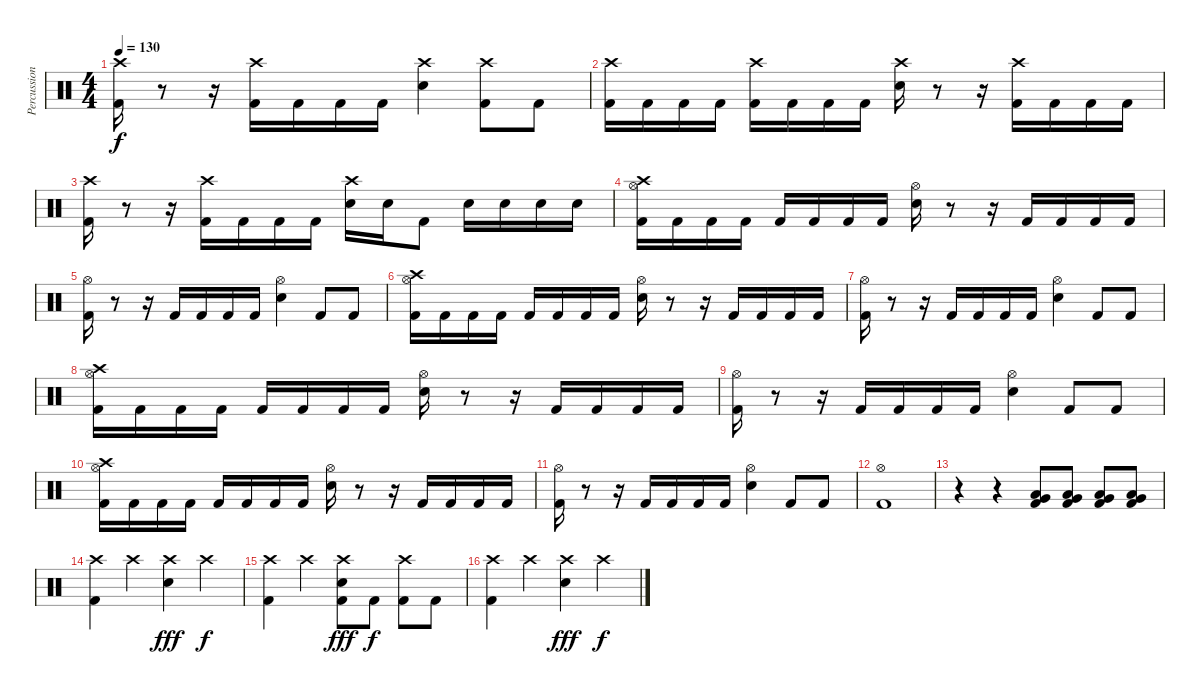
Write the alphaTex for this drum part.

\track ("Percussion" "Percussion") {instrument percussion}
\staff {score}
\articulation defaults
\ts (4 4)
\tempo 130
\clef neutral
\ks c
("Crash high (hit)" "Kick (hit) 2").16{dy f} r.8 r.16 ("Crash high (hit)" "Kick (hit) 2").16 "Kick (hit) 2".16 "Kick (hit) 2".16 "Kick (hit) 2".16 ("Crash high (hit)" "Electric Snare (hit)").4 ("Crash high (hit)" "Kick (hit) 2").8 "Kick (hit) 2".8 |
("Crash high (hit)" "Kick (hit) 2").16 "Kick (hit) 2".16 "Kick (hit) 2".16 "Kick (hit) 2".16 ("Crash high (hit)" "Kick (hit) 2").16 "Kick (hit) 2".16 "Kick (hit) 2".16 "Kick (hit) 2".16 ("Crash high (hit)" "Electric Snare (hit)").16 r.8 r.16 ("Crash high (hit)" "Kick (hit) 2").16 "Kick (hit) 2".16 "Kick (hit) 2".16 "Kick (hit) 2".16 |
("Crash high (hit)" "Kick (hit) 2").16 r.8 r.16 ("Crash high (hit)" "Kick (hit) 2").16 "Kick (hit) 2".16 "Kick (hit) 2".16 "Kick (hit) 2".16 ("Crash high (hit)" "Electric Snare (hit)").16 "Electric Snare (hit)".16 "Kick (hit) 2".8 "Electric Snare (hit)".16 "Electric Snare (hit)".16 "Electric Snare (hit)".16 "Electric Snare (hit)".16 |
("Hi-Hat (open)" "Crash high (hit)" "Kick (hit) 2").16 "Kick (hit) 2".16 "Kick (hit) 2".16 "Kick (hit) 2".16 "Kick (hit) 2".16 "Kick (hit) 2".16 "Kick (hit) 2".16 "Kick (hit) 2".16 ("Hi-Hat (open)" "Electric Snare (hit)").16 r.8 r.16 "Kick (hit) 2".16 "Kick (hit) 2".16 "Kick (hit) 2".16 "Kick (hit) 2".16 |
("Hi-Hat (open)" "Kick (hit) 2").16 r.8 r.16 "Kick (hit) 2".16 "Kick (hit) 2".16 "Kick (hit) 2".16 "Kick (hit) 2".16 ("Hi-Hat (open)" "Electric Snare (hit)").4 "Kick (hit) 2".8 "Kick (hit) 2".8 |
("Hi-Hat (open)" "Crash high (hit)" "Kick (hit) 2").16 "Kick (hit) 2".16 "Kick (hit) 2".16 "Kick (hit) 2".16 "Kick (hit) 2".16 "Kick (hit) 2".16 "Kick (hit) 2".16 "Kick (hit) 2".16 ("Hi-Hat (open)" "Electric Snare (hit)").16 r.8 r.16 "Kick (hit) 2".16 "Kick (hit) 2".16 "Kick (hit) 2".16 "Kick (hit) 2".16 |
("Hi-Hat (open)" "Kick (hit) 2").16 r.8 r.16 "Kick (hit) 2".16 "Kick (hit) 2".16 "Kick (hit) 2".16 "Kick (hit) 2".16 ("Hi-Hat (open)" "Electric Snare (hit)").4 "Kick (hit) 2".8 "Kick (hit) 2".8 |
("Hi-Hat (open)" "Crash high (hit)" "Kick (hit) 2").16 "Kick (hit) 2".16 "Kick (hit) 2".16 "Kick (hit) 2".16 "Kick (hit) 2".16 "Kick (hit) 2".16 "Kick (hit) 2".16 "Kick (hit) 2".16 ("Hi-Hat (open)" "Electric Snare (hit)").16 r.8 r.16 "Kick (hit) 2".16 "Kick (hit) 2".16 "Kick (hit) 2".16 "Kick (hit) 2".16 |
("Hi-Hat (open)" "Kick (hit) 2").16 r.8 r.16 "Kick (hit) 2".16 "Kick (hit) 2".16 "Kick (hit) 2".16 "Kick (hit) 2".16 ("Hi-Hat (open)" "Electric Snare (hit)").4 "Kick (hit) 2".8 "Kick (hit) 2".8 |
("Hi-Hat (open)" "Crash high (hit)" "Kick (hit) 2").16 "Kick (hit) 2".16 "Kick (hit) 2".16 "Kick (hit) 2".16 "Kick (hit) 2".16 "Kick (hit) 2".16 "Kick (hit) 2".16 "Kick (hit) 2".16 ("Hi-Hat (open)" "Electric Snare (hit)").16 r.8 r.16 "Kick (hit) 2".16 "Kick (hit) 2".16 "Kick (hit) 2".16 "Kick (hit) 2".16 |
("Hi-Hat (open)" "Kick (hit) 2").16 r.8 r.16 "Kick (hit) 2".16 "Kick (hit) 2".16 "Kick (hit) 2".16 "Kick (hit) 2".16 ("Hi-Hat (open)" "Electric Snare (hit)").4 "Kick (hit) 2".8 "Kick (hit) 2".8 |
("Hi-Hat (open)" "Kick (hit) 2").1 |
r.4 r.4 ("Kick (hit) 2" "Low Floor Tom (hit)" "Very Low Tom (hit)").8 ("Kick (hit) 2" "Low Floor Tom (hit)" "Very Low Tom (hit)").8 ("Kick (hit) 2" "Low Floor Tom (hit)" "Very Low Tom (hit)").8 ("Kick (hit) 2" "Low Floor Tom (hit)" "Very Low Tom (hit)").8 |
("Crash high (hit)" "Kick (hit) 2").4 "Crash high (hit)".4 ("Crash high (hit)" "Electric Snare (hit)").4{dy fff} "Crash high (hit)".4{dy f} |
("Crash high (hit)" "Kick (hit) 2").4 "Crash high (hit)".4 ("Crash high (hit)" "Electric Snare (hit)" "Kick (hit) 2").8{dy fff} "Kick (hit) 2".8{dy f} ("Crash high (hit)" "Kick (hit) 2").8 "Kick (hit) 2".8 |
("Crash high (hit)" "Kick (hit) 2").4 "Crash high (hit)".4 ("Crash high (hit)" "Electric Snare (hit)").4{dy fff} "Crash high (hit)".4{dy f}
